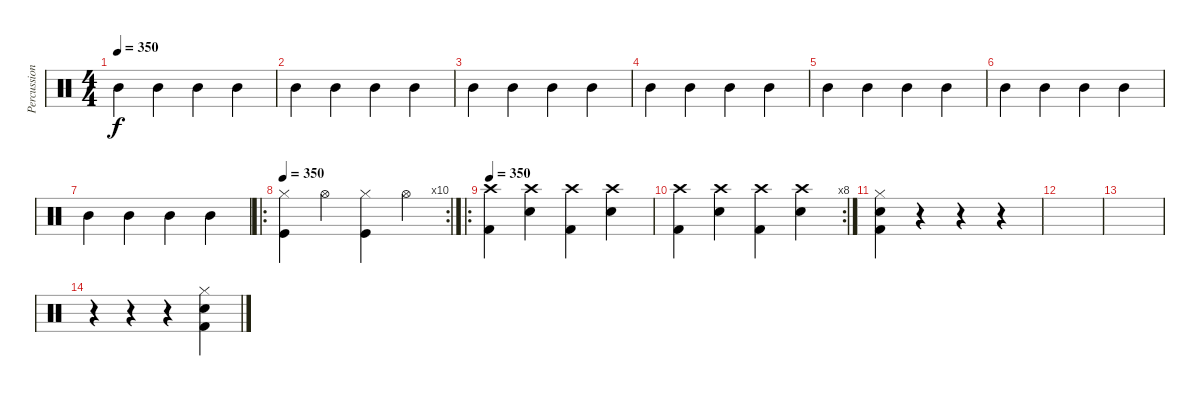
\track ("Percussion" "Percussion") {instrument percussion}
\staff {score}
\articulation defaults
\ts (4 4)
\tempo 350
\clef neutral
\ks c "Mid Tom (hit)".4{dy f} "Mid Tom (hit)".4 "Mid Tom (hit)".4 "Mid Tom (hit)".4
|
"Mid Tom (hit)".4 "Mid Tom (hit)".4 "Mid Tom (hit)".4 "Mid Tom (hit)".4 |
"Mid Tom (hit)".4 "Mid Tom (hit)".4 "Mid Tom (hit)".4 "Mid Tom (hit)".4 |
"Mid Tom (hit)".4 "Mid Tom (hit)".4 "Mid Tom (hit)".4 "Mid Tom (hit)".4 |
"Mid Tom (hit)".4 "Mid Tom (hit)".4 "Mid Tom (hit)".4 "Mid Tom (hit)".4 |
"Mid Tom (hit)".4 "Mid Tom (hit)".4 "Mid Tom (hit)".4 "Mid Tom (hit)".4 |
"Mid Tom (hit)".4 "Mid Tom (hit)".4 "Mid Tom (hit)".4 "Mid Tom (hit)".4 |
\ro
\rc 10
\tempo 350
("Hi-Hat (closed)" "Kick (hit)").4 "Hi-Hat (open)".4 ("Hi-Hat (closed)" "Kick (hit)").4 "Hi-Hat (open)".4 |
\ro
\tempo 350
("Kick (hit) 2" "Crash high (hit)").4 ("Electric Snare (hit)" "Crash high (hit)").4 ("Kick (hit) 2" "Crash high (hit)").4 ("Electric Snare (hit)" "Crash high (hit)").4 |
\rc 8
("Kick (hit) 2" "Crash high (hit)").4 ("Electric Snare (hit)" "Crash high (hit)").4 ("Kick (hit) 2" "Crash high (hit)").4 ("Electric Snare (hit)" "Crash high (hit)").4 |
("Kick (hit) 2" "Hi-Hat (closed)" "Electric Snare (hit)").4 r.4 r.4 r.4 |
|
|
r.4 r.4 r.4 ("Kick (hit) 2" "Hi-Hat (closed)" "Electric Snare (hit)").4
